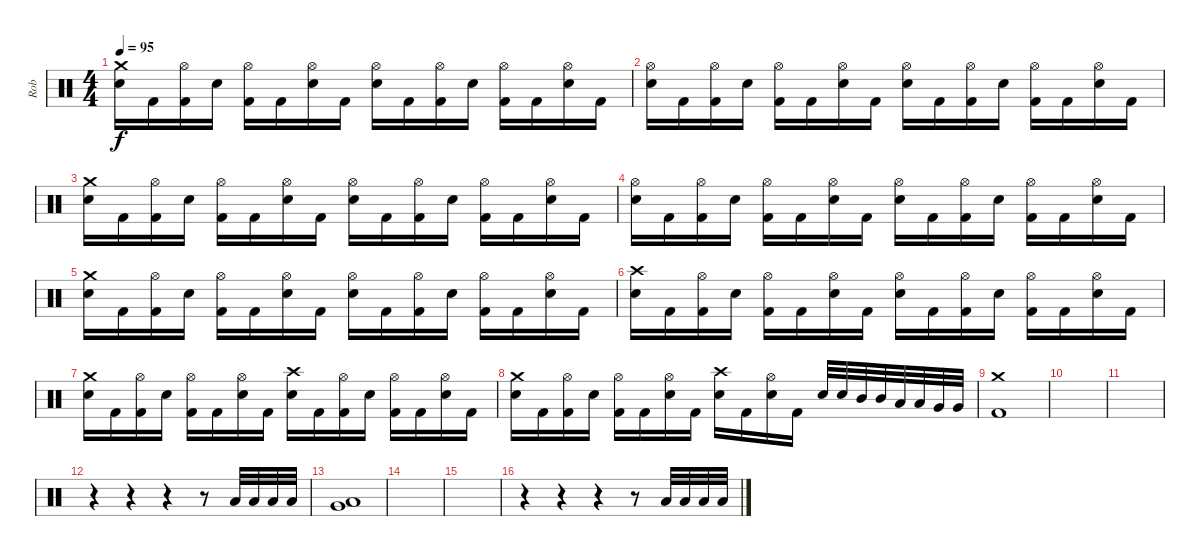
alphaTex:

\track ("Rob" "Rob") {instrument percussion}
\staff {score}
\articulation defaults
\ts (4 4)
\tempo 95
\clef neutral
\ks c
("Crash medium (hit)" "Electric Snare (hit)").16{dy f} "Kick (hit) 2".16 ("Hi-Hat (open)" "Kick (hit) 2").16 "Electric Snare (hit)".16 ("Hi-Hat (open)" "Kick (hit) 2").16 "Kick (hit) 2".16 ("Hi-Hat (open)" "Electric Snare (hit)").16 "Kick (hit) 2".16 ("Hi-Hat (open)" "Electric Snare (hit)").16 "Kick (hit) 2".16 ("Hi-Hat (open)" "Kick (hit) 2").16 "Electric Snare (hit)".16 ("Hi-Hat (open)" "Kick (hit) 2").16 "Kick (hit) 2".16 ("Hi-Hat (open)" "Electric Snare (hit)").16 "Kick (hit) 2".16 |
("Hi-Hat (open)" "Electric Snare (hit)").16 "Kick (hit) 2".16 ("Hi-Hat (open)" "Kick (hit) 2").16 "Electric Snare (hit)".16 ("Hi-Hat (open)" "Kick (hit) 2").16 "Kick (hit) 2".16 ("Hi-Hat (open)" "Electric Snare (hit)").16 "Kick (hit) 2".16 ("Hi-Hat (open)" "Electric Snare (hit)").16 "Kick (hit) 2".16 ("Hi-Hat (open)" "Kick (hit) 2").16 "Electric Snare (hit)".16 ("Hi-Hat (open)" "Kick (hit) 2").16 "Kick (hit) 2".16 ("Hi-Hat (open)" "Electric Snare (hit)").16 "Kick (hit) 2".16 |
("Crash medium (hit)" "Electric Snare (hit)").16 "Kick (hit) 2".16 ("Hi-Hat (open)" "Kick (hit) 2").16 "Electric Snare (hit)".16 ("Hi-Hat (open)" "Kick (hit) 2").16 "Kick (hit) 2".16 ("Hi-Hat (open)" "Electric Snare (hit)").16 "Kick (hit) 2".16 ("Hi-Hat (open)" "Electric Snare (hit)").16 "Kick (hit) 2".16 ("Hi-Hat (open)" "Kick (hit) 2").16 "Electric Snare (hit)".16 ("Hi-Hat (open)" "Kick (hit) 2").16 "Kick (hit) 2".16 ("Hi-Hat (open)" "Electric Snare (hit)").16 "Kick (hit) 2".16 |
("Hi-Hat (open)" "Electric Snare (hit)").16 "Kick (hit) 2".16 ("Hi-Hat (open)" "Kick (hit) 2").16 "Electric Snare (hit)".16 ("Hi-Hat (open)" "Kick (hit) 2").16 "Kick (hit) 2".16 ("Hi-Hat (open)" "Electric Snare (hit)").16 "Kick (hit) 2".16 ("Hi-Hat (open)" "Electric Snare (hit)").16 "Kick (hit) 2".16 ("Hi-Hat (open)" "Kick (hit) 2").16 "Electric Snare (hit)".16 ("Hi-Hat (open)" "Kick (hit) 2").16 "Kick (hit) 2".16 ("Hi-Hat (open)" "Electric Snare (hit)").16 "Kick (hit) 2".16 |
("Crash medium (hit)" "Electric Snare (hit)").16 "Kick (hit) 2".16 ("Hi-Hat (open)" "Kick (hit) 2").16 "Electric Snare (hit)".16 ("Hi-Hat (open)" "Kick (hit) 2").16 "Kick (hit) 2".16 ("Hi-Hat (open)" "Electric Snare (hit)").16 "Kick (hit) 2".16 ("Hi-Hat (open)" "Electric Snare (hit)").16 "Kick (hit) 2".16 ("Hi-Hat (open)" "Kick (hit) 2").16 "Electric Snare (hit)".16 ("Hi-Hat (open)" "Kick (hit) 2").16 "Kick (hit) 2".16 ("Hi-Hat (open)" "Electric Snare (hit)").16 "Kick (hit) 2".16 |
("Crash high (hit)" "Electric Snare (hit)").16 "Kick (hit) 2".16 ("Hi-Hat (open)" "Kick (hit) 2").16 "Electric Snare (hit)".16 ("Hi-Hat (open)" "Kick (hit) 2").16 "Kick (hit) 2".16 ("Hi-Hat (open)" "Electric Snare (hit)").16 "Kick (hit) 2".16 ("Hi-Hat (open)" "Electric Snare (hit)").16 "Kick (hit) 2".16 ("Hi-Hat (open)" "Kick (hit) 2").16 "Electric Snare (hit)".16 ("Hi-Hat (open)" "Kick (hit) 2").16 "Kick (hit) 2".16 ("Hi-Hat (open)" "Electric Snare (hit)").16 "Kick (hit) 2".16 |
("Crash medium (hit)" "Electric Snare (hit)").16 "Kick (hit) 2".16 ("Hi-Hat (open)" "Kick (hit) 2").16 "Electric Snare (hit)".16 ("Hi-Hat (open)" "Kick (hit) 2").16 "Kick (hit) 2".16 ("Hi-Hat (open)" "Electric Snare (hit)").16 "Kick (hit) 2".16 ("Crash high (hit)" "Electric Snare (hit)").16 "Kick (hit) 2".16 ("Hi-Hat (open)" "Kick (hit) 2").16 "Electric Snare (hit)".16 ("Hi-Hat (open)" "Kick (hit) 2").16 "Kick (hit) 2".16 ("Hi-Hat (open)" "Electric Snare (hit)").16 "Kick (hit) 2".16 |
("Crash medium (hit)" "Electric Snare (hit)").16 "Kick (hit) 2".16 ("Hi-Hat (open)" "Kick (hit) 2").16 "Electric Snare (hit)".16 ("Hi-Hat (open)" "Kick (hit) 2").16 "Kick (hit) 2".16 ("Hi-Hat (open)" "Electric Snare (hit)").16 "Kick (hit) 2".16 ("Crash high (hit)" "Electric Snare (hit)").16 "Kick (hit) 2".16 ("Hi-Hat (open)" "Electric Snare (hit)").16 "Kick (hit) 2".16 "Electric Snare (hit)".32 "Electric Snare (hit)".32 "Mid Tom (hit)".32 "Mid Tom (hit)".32 "Low Tom (hit)".32 "Low Tom (hit)".32 "Very Low Tom (hit)".32 "Very Low Tom (hit)".32 |
("Crash medium (hit)" "Kick (hit) 2").1 |
|
|
r.4 r.4 r.4 r.8 "Low Tom (hit)".32 "Low Tom (hit)".32 "Low Tom (hit)".32 "Low Tom (hit)".32 |
("Very Low Tom (hit)" "Low Tom (hit)").1 |
|
|
r.4 r.4 r.4 r.8 "Low Tom (hit)".32 "Low Tom (hit)".32 "Low Tom (hit)".32 "Low Tom (hit)".32
